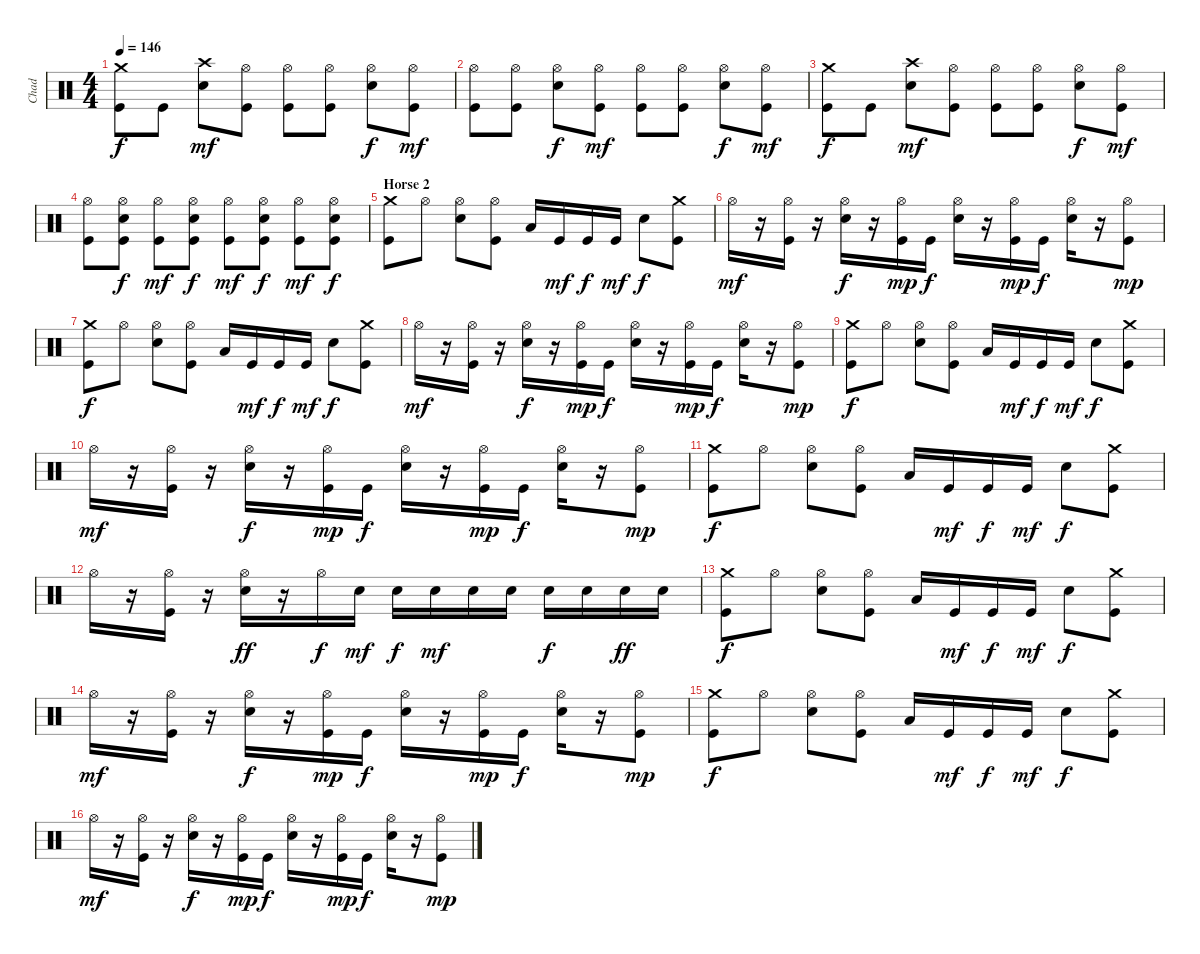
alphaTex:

\track ("Chad" "Chad") {instrument percussion}
\staff {score}
\articulation defaults
\ts (4 4)
\tempo 146
\clef neutral
\ks c
("Crash medium (hit)" "Kick (hit)").8{dy f} "Kick (hit)".8 ("Crash high (hit)" "Snare (hit) 2").8{dy mf} ("Hi-Hat (open)" "Kick (hit)").8 ("Hi-Hat (open)" "Kick (hit)").8 ("Hi-Hat (open)" "Kick (hit)").8 ("Hi-Hat (open)" "Snare (hit) 2").8{dy f} ("Hi-Hat (open)" "Kick (hit)").8{dy mf} |
("Hi-Hat (open)" "Kick (hit)").8 ("Hi-Hat (open)" "Kick (hit)").8 ("Hi-Hat (open)" "Snare (hit) 2").8{dy f} ("Hi-Hat (open)" "Kick (hit)").8{dy mf} ("Hi-Hat (open)" "Kick (hit)").8 ("Hi-Hat (open)" "Kick (hit)").8 ("Hi-Hat (open)" "Snare (hit) 2").8{dy f} ("Hi-Hat (open)" "Kick (hit)").8{dy mf} |
("Crash medium (hit)" "Kick (hit)").8{dy f} "Kick (hit)".8 ("Crash high (hit)" "Snare (hit) 2").8{dy mf} ("Hi-Hat (open)" "Kick (hit)").8 ("Hi-Hat (open)" "Kick (hit)").8 ("Hi-Hat (open)" "Kick (hit)").8 ("Hi-Hat (open)" "Snare (hit) 2").8{dy f} ("Hi-Hat (open)" "Kick (hit)").8{dy mf} |
("Hi-Hat (open)" "Kick (hit)").8 ("Hi-Hat (open)" "Snare (hit) 2" "Kick (hit)").8{dy f} ("Hi-Hat (open)" "Kick (hit)").8{dy mf} ("Hi-Hat (open)" "Snare (hit) 2" "Kick (hit)").8{dy f} ("Hi-Hat (open)" "Kick (hit)").8{dy mf} ("Hi-Hat (open)" "Snare (hit) 2" "Kick (hit)").8{dy f} ("Hi-Hat (open)" "Kick (hit)").8{dy mf} ("Hi-Hat (open)" "Snare (hit) 2" "Kick (hit)").8{dy f} |
\section ("" "Horse 2")
("Crash medium (hit)" "Kick (hit)").8 "Hi-Hat (open)".8 ("Hi-Hat (open)" "Snare (hit) 2").8 ("Hi-Hat (open)" "Kick (hit)").8 "Low Floor Tom (hit)".16 "Kick (hit)".16{dy mf} "Kick (hit)".16{dy f} "Kick (hit)".16{dy mf} "Snare (hit) 2".8{dy f} ("Crash medium (hit)" "Kick (hit)").8 |
"Hi-Hat (open)".16{dy mf} r.16 ("Hi-Hat (open)" "Kick (hit)").16 r.16 ("Hi-Hat (open)" "Snare (hit) 2").16{dy f} r.16 ("Hi-Hat (open)" "Kick (hit)").16{dy mp} "Kick (hit)".16{dy f} ("Hi-Hat (open)" "Snare (hit) 2").16 r.16 ("Hi-Hat (open)" "Kick (hit)").16{dy mp} "Kick (hit)".16{dy f} ("Hi-Hat (open)" "Snare (hit) 2").16 r.16 ("Hi-Hat (open)" "Kick (hit)").8{dy mp} |
("Crash medium (hit)" "Kick (hit)").8{dy f} "Hi-Hat (open)".8 ("Hi-Hat (open)" "Snare (hit) 2").8 ("Hi-Hat (open)" "Kick (hit)").8 "Low Floor Tom (hit)".16 "Kick (hit)".16{dy mf} "Kick (hit)".16{dy f} "Kick (hit)".16{dy mf} "Snare (hit) 2".8{dy f} ("Crash medium (hit)" "Kick (hit)").8 |
"Hi-Hat (open)".16{dy mf} r.16 ("Hi-Hat (open)" "Kick (hit)").16 r.16 ("Hi-Hat (open)" "Snare (hit) 2").16{dy f} r.16 ("Hi-Hat (open)" "Kick (hit)").16{dy mp} "Kick (hit)".16{dy f} ("Hi-Hat (open)" "Snare (hit) 2").16 r.16 ("Hi-Hat (open)" "Kick (hit)").16{dy mp} "Kick (hit)".16{dy f} ("Hi-Hat (open)" "Snare (hit) 2").16 r.16 ("Hi-Hat (open)" "Kick (hit)").8{dy mp} |
("Crash medium (hit)" "Kick (hit)").8{dy f} "Hi-Hat (open)".8 ("Hi-Hat (open)" "Snare (hit) 2").8 ("Hi-Hat (open)" "Kick (hit)").8 "Low Floor Tom (hit)".16 "Kick (hit)".16{dy mf} "Kick (hit)".16{dy f} "Kick (hit)".16{dy mf} "Snare (hit) 2".8{dy f} ("Crash medium (hit)" "Kick (hit)").8 |
"Hi-Hat (open)".16{dy mf} r.16 ("Hi-Hat (open)" "Kick (hit)").16 r.16 ("Hi-Hat (open)" "Snare (hit) 2").16{dy f} r.16 ("Hi-Hat (open)" "Kick (hit)").16{dy mp} "Kick (hit)".16{dy f} ("Hi-Hat (open)" "Snare (hit) 2").16 r.16 ("Hi-Hat (open)" "Kick (hit)").16{dy mp} "Kick (hit)".16{dy f} ("Hi-Hat (open)" "Snare (hit) 2").16 r.16 ("Hi-Hat (open)" "Kick (hit)").8{dy mp} |
("Crash medium (hit)" "Kick (hit)").8{dy f} "Hi-Hat (open)".8 ("Hi-Hat (open)" "Snare (hit) 2").8 ("Hi-Hat (open)" "Kick (hit)").8 "Low Floor Tom (hit)".16 "Kick (hit)".16{dy mf} "Kick (hit)".16{dy f} "Kick (hit)".16{dy mf} "Snare (hit) 2".8{dy f} ("Crash medium (hit)" "Kick (hit)").8 |
"Hi-Hat (open)".16 r.16 ("Hi-Hat (open)" "Kick (hit)").16 r.16 ("Hi-Hat (open)" "Snare (hit) 2").16{dy ff} r.16 "Hi-Hat (open)".16{dy f} "Snare (hit) 2".16{dy mf} "Snare (hit) 2".16{dy f} "Snare (hit) 2".16{dy mf} "Snare (hit) 2".16 "Snare (hit) 2".16 "Snare (hit) 2".16{dy f} "Snare (hit) 2".16 "Snare (hit) 2".16{dy ff} "Snare (hit) 2".16 |
("Crash medium (hit)" "Kick (hit)").8{dy f} "Hi-Hat (open)".8 ("Hi-Hat (open)" "Snare (hit) 2").8 ("Hi-Hat (open)" "Kick (hit)").8 "Low Floor Tom (hit)".16 "Kick (hit)".16{dy mf} "Kick (hit)".16{dy f} "Kick (hit)".16{dy mf} "Snare (hit) 2".8{dy f} ("Crash medium (hit)" "Kick (hit)").8 |
"Hi-Hat (open)".16{dy mf} r.16 ("Hi-Hat (open)" "Kick (hit)").16 r.16 ("Hi-Hat (open)" "Snare (hit) 2").16{dy f} r.16 ("Hi-Hat (open)" "Kick (hit)").16{dy mp} "Kick (hit)".16{dy f} ("Hi-Hat (open)" "Snare (hit) 2").16 r.16 ("Hi-Hat (open)" "Kick (hit)").16{dy mp} "Kick (hit)".16{dy f} ("Hi-Hat (open)" "Snare (hit) 2").16 r.16 ("Hi-Hat (open)" "Kick (hit)").8{dy mp} |
("Crash medium (hit)" "Kick (hit)").8{dy f} "Hi-Hat (open)".8 ("Hi-Hat (open)" "Snare (hit) 2").8 ("Hi-Hat (open)" "Kick (hit)").8 "Low Floor Tom (hit)".16 "Kick (hit)".16{dy mf} "Kick (hit)".16{dy f} "Kick (hit)".16{dy mf} "Snare (hit) 2".8{dy f} ("Crash medium (hit)" "Kick (hit)").8 |
"Hi-Hat (open)".16{dy mf} r.16 ("Hi-Hat (open)" "Kick (hit)").16 r.16 ("Hi-Hat (open)" "Snare (hit) 2").16{dy f} r.16 ("Hi-Hat (open)" "Kick (hit)").16{dy mp} "Kick (hit)".16{dy f} ("Hi-Hat (open)" "Snare (hit) 2").16 r.16 ("Hi-Hat (open)" "Kick (hit)").16{dy mp} "Kick (hit)".16{dy f} ("Hi-Hat (open)" "Snare (hit) 2").16 r.16 ("Hi-Hat (open)" "Kick (hit)").8{dy mp}
